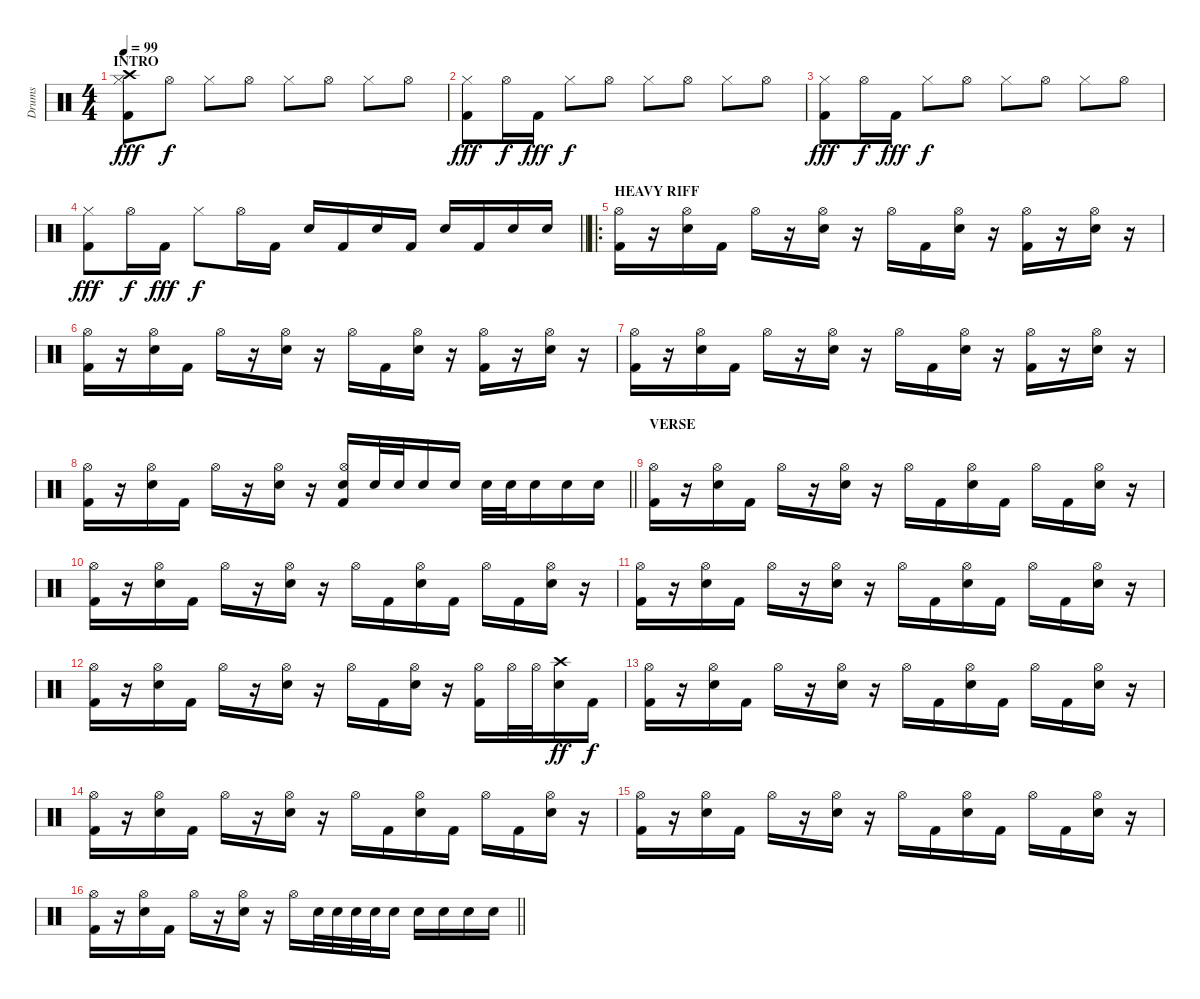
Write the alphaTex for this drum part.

\track ("Drums" "Drums") {instrument percussion}
\staff {score}
\articulation defaults
\ts (4 4)
\section ("" "INTRO")
\tempo 99
\clef neutral
\ks c
("Crash high (hit)" "Hi-Hat (closed)" "Kick (hit) 2").8{dy fff} "Hi-Hat (open)".8{dy f} "Hi-Hat (closed)".8 "Hi-Hat (open)".8 "Hi-Hat (closed)".8 "Hi-Hat (open)".8 "Hi-Hat (closed)".8 "Hi-Hat (open)".8 |
("Hi-Hat (closed)" "Kick (hit) 2").8{dy fff} "Hi-Hat (open)".16{dy f} "Kick (hit) 2".16{dy fff} "Hi-Hat (closed)".8{dy f} "Hi-Hat (open)".8 "Hi-Hat (closed)".8 "Hi-Hat (open)".8 "Hi-Hat (closed)".8 "Hi-Hat (open)".8 |
("Hi-Hat (closed)" "Kick (hit) 2").8{dy fff} "Hi-Hat (open)".16{dy f} "Kick (hit) 2".16{dy fff} "Hi-Hat (closed)".8{dy f} "Hi-Hat (open)".8 "Hi-Hat (closed)".8 "Hi-Hat (open)".8 "Hi-Hat (closed)".8 "Hi-Hat (open)".8 |
\barLineRight lightlight
("Hi-Hat (closed)" "Kick (hit) 2").8{dy fff} "Hi-Hat (open)".16{dy f} "Kick (hit) 2".16{dy fff} "Hi-Hat (closed)".8{dy f} "Hi-Hat (open)".16 "Kick (hit) 2".16 "Electric Snare (hit)".16 "Kick (hit) 2".16 "Electric Snare (hit)".16 "Kick (hit) 2".16 "Electric Snare (hit)".16 "Kick (hit) 2".16 "Electric Snare (hit)".16 "Electric Snare (hit)".16 |
\ro
\section ("" "HEAVY RIFF")
("Hi-Hat (open)" "Kick (hit) 2").16 r.16 ("Hi-Hat (open)" "Electric Snare (hit)").16 "Kick (hit) 2".16 "Hi-Hat (open)".16 r.16 ("Hi-Hat (open)" "Electric Snare (hit)").16 r.16 "Hi-Hat (open)".16 "Kick (hit) 2".16 ("Hi-Hat (open)" "Electric Snare (hit)").16 r.16 ("Hi-Hat (open)" "Kick (hit) 2").16 r.16 ("Hi-Hat (open)" "Electric Snare (hit)").16 r.16 |
("Hi-Hat (open)" "Kick (hit) 2").16 r.16 ("Hi-Hat (open)" "Electric Snare (hit)").16 "Kick (hit) 2".16 "Hi-Hat (open)".16 r.16 ("Hi-Hat (open)" "Electric Snare (hit)").16 r.16 "Hi-Hat (open)".16 "Kick (hit) 2".16 ("Hi-Hat (open)" "Electric Snare (hit)").16 r.16 ("Hi-Hat (open)" "Kick (hit) 2").16 r.16 ("Hi-Hat (open)" "Electric Snare (hit)").16 r.16 |
("Hi-Hat (open)" "Kick (hit) 2").16 r.16 ("Hi-Hat (open)" "Electric Snare (hit)").16 "Kick (hit) 2".16 "Hi-Hat (open)".16 r.16 ("Hi-Hat (open)" "Electric Snare (hit)").16 r.16 "Hi-Hat (open)".16 "Kick (hit) 2".16 ("Hi-Hat (open)" "Electric Snare (hit)").16 r.16 ("Hi-Hat (open)" "Kick (hit) 2").16 r.16 ("Hi-Hat (open)" "Electric Snare (hit)").16 r.16 |
\barLineRight lightlight
("Hi-Hat (open)" "Kick (hit) 2").16 r.16 ("Hi-Hat (open)" "Electric Snare (hit)").16 "Kick (hit) 2".16 "Hi-Hat (open)".16 r.16 ("Hi-Hat (open)" "Electric Snare (hit)").16 r.16 ("Hi-Hat (open)" "Electric Snare (hit)" "Kick (hit) 2").16 "Electric Snare (hit)".32 "Electric Snare (hit)".32 "Electric Snare (hit)".16 "Electric Snare (hit)".16 "Electric Snare (hit)".32 "Electric Snare (hit)".32 "Electric Snare (hit)".16 "Electric Snare (hit)".16 "Electric Snare (hit)".16 |
\section ("" "VERSE")
("Hi-Hat (open)" "Kick (hit) 2").16 r.16 ("Hi-Hat (open)" "Electric Snare (hit)").16 "Kick (hit) 2".16 "Hi-Hat (open)".16 r.16 ("Hi-Hat (open)" "Electric Snare (hit)").16 r.16 "Hi-Hat (open)".16 "Kick (hit) 2".16 ("Hi-Hat (open)" "Electric Snare (hit)").16 "Kick (hit) 2".16 "Hi-Hat (open)".16 "Kick (hit) 2".16 ("Hi-Hat (open)" "Electric Snare (hit)").16 r.16 |
("Hi-Hat (open)" "Kick (hit) 2").16 r.16 ("Hi-Hat (open)" "Electric Snare (hit)").16 "Kick (hit) 2".16 "Hi-Hat (open)".16 r.16 ("Hi-Hat (open)" "Electric Snare (hit)").16 r.16 "Hi-Hat (open)".16 "Kick (hit) 2".16 ("Hi-Hat (open)" "Electric Snare (hit)").16 "Kick (hit) 2".16 "Hi-Hat (open)".16 "Kick (hit) 2".16 ("Hi-Hat (open)" "Electric Snare (hit)").16 r.16 |
("Hi-Hat (open)" "Kick (hit) 2").16 r.16 ("Hi-Hat (open)" "Electric Snare (hit)").16 "Kick (hit) 2".16 "Hi-Hat (open)".16 r.16 ("Hi-Hat (open)" "Electric Snare (hit)").16 r.16 "Hi-Hat (open)".16 "Kick (hit) 2".16 ("Hi-Hat (open)" "Electric Snare (hit)").16 "Kick (hit) 2".16 "Hi-Hat (open)".16 "Kick (hit) 2".16 ("Hi-Hat (open)" "Electric Snare (hit)").16 r.16 |
("Hi-Hat (open)" "Kick (hit) 2").16 r.16 ("Hi-Hat (open)" "Electric Snare (hit)").16 "Kick (hit) 2".16 "Hi-Hat (open)".16 r.16 ("Hi-Hat (open)" "Electric Snare (hit)").16 r.16 "Hi-Hat (open)".16 "Kick (hit) 2".16 ("Hi-Hat (open)" "Electric Snare (hit)").16 r.16 ("Hi-Hat (open)" "Kick (hit) 2").16 "Hi-Hat (open)".32 "Hi-Hat (open)".32 ("Crash high (hit)" "Electric Snare (hit)").16{dy ff} "Kick (hit) 2".16{dy f} |
("Hi-Hat (open)" "Kick (hit) 2").16 r.16 ("Hi-Hat (open)" "Electric Snare (hit)").16 "Kick (hit) 2".16 "Hi-Hat (open)".16 r.16 ("Hi-Hat (open)" "Electric Snare (hit)").16 r.16 "Hi-Hat (open)".16 "Kick (hit) 2".16 ("Hi-Hat (open)" "Electric Snare (hit)").16 "Kick (hit) 2".16 "Hi-Hat (open)".16 "Kick (hit) 2".16 ("Hi-Hat (open)" "Electric Snare (hit)").16 r.16 |
("Hi-Hat (open)" "Kick (hit) 2").16 r.16 ("Hi-Hat (open)" "Electric Snare (hit)").16 "Kick (hit) 2".16 "Hi-Hat (open)".16 r.16 ("Hi-Hat (open)" "Electric Snare (hit)").16 r.16 "Hi-Hat (open)".16 "Kick (hit) 2".16 ("Hi-Hat (open)" "Electric Snare (hit)").16 "Kick (hit) 2".16 "Hi-Hat (open)".16 "Kick (hit) 2".16 ("Hi-Hat (open)" "Electric Snare (hit)").16 r.16 |
("Hi-Hat (open)" "Kick (hit) 2").16 r.16 ("Hi-Hat (open)" "Electric Snare (hit)").16 "Kick (hit) 2".16 "Hi-Hat (open)".16 r.16 ("Hi-Hat (open)" "Electric Snare (hit)").16 r.16 "Hi-Hat (open)".16 "Kick (hit) 2".16 ("Hi-Hat (open)" "Electric Snare (hit)").16 "Kick (hit) 2".16 "Hi-Hat (open)".16 "Kick (hit) 2".16 ("Hi-Hat (open)" "Electric Snare (hit)").16 r.16 |
\barLineRight lightlight
("Hi-Hat (open)" "Kick (hit) 2").16 r.16 ("Hi-Hat (open)" "Electric Snare (hit)").16 "Kick (hit) 2".16 "Hi-Hat (open)".16 r.16 ("Hi-Hat (open)" "Electric Snare (hit)").16 r.16 "Hi-Hat (open)".16 "Electric Snare (hit)".32 "Electric Snare (hit)".32 "Electric Snare (hit)".32 "Electric Snare (hit)".32 "Electric Snare (hit)".16 "Electric Snare (hit)".16 "Electric Snare (hit)".16 "Electric Snare (hit)".16 "Electric Snare (hit)".16
